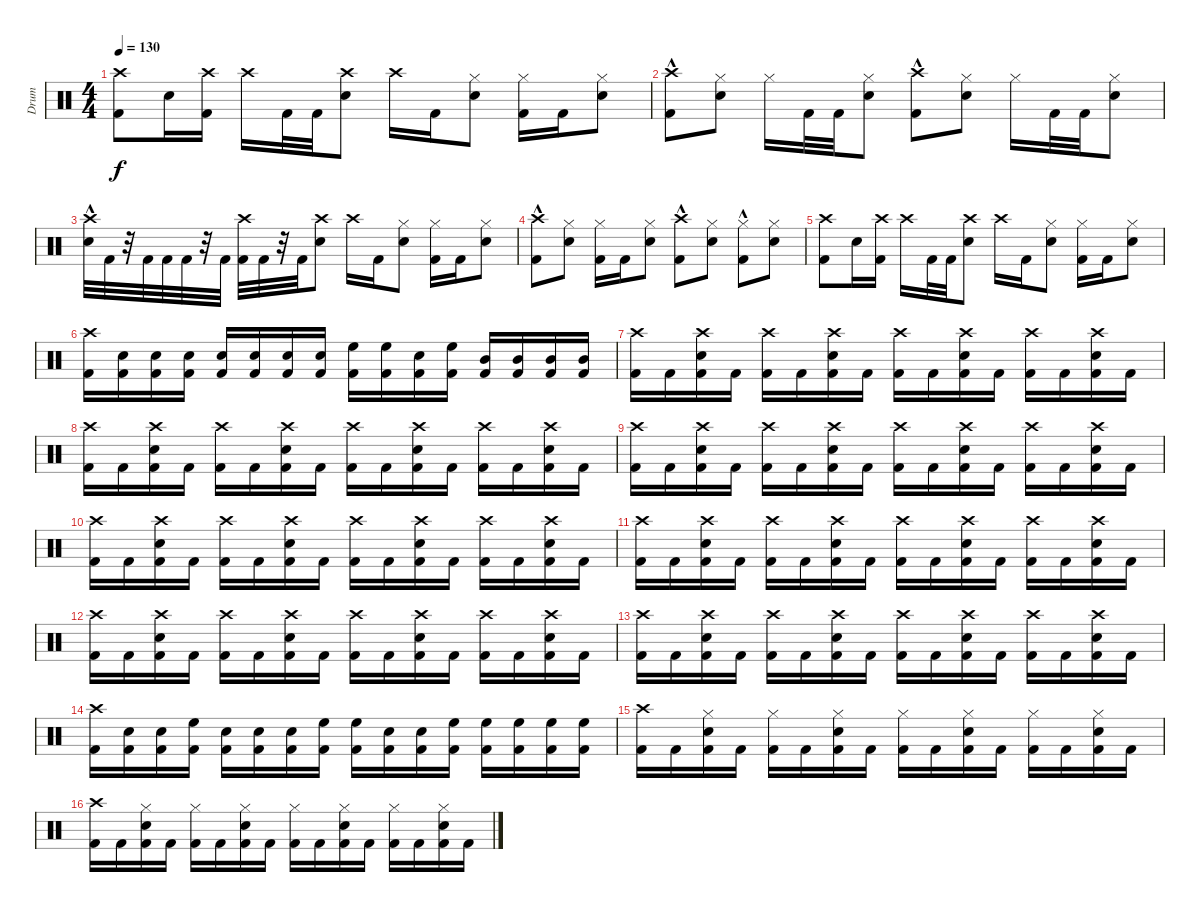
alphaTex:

\track ("Drum" "Drum") {instrument percussion}
\staff {score}
\articulation defaults
\ts (4 4)
\tempo 130
\clef neutral
\ks c
("Crash high (hit)" "Kick (hit) 2").8{dy f} "Snare (hit) 2".16 ("Crash high (hit)" "Kick (hit) 2").16 "Crash high (hit)".16 "Kick (hit) 2".32 "Kick (hit) 2".32 ("Crash high (hit)" "Snare (hit) 2").8 "Crash high (hit)".16 "Kick (hit) 2".16 ("Hi-Hat (closed)" "Snare (hit) 2").8 ("Hi-Hat (closed)" "Kick (hit) 2").16 "Kick (hit) 2".16 ("Hi-Hat (closed)" "Snare (hit) 2").8 |
("Crash high (hit)" "Kick (hit) 2"{hac}).8 ("Hi-Hat (closed)" "Snare (hit) 2").8 "Hi-Hat (closed)".16 "Kick (hit) 2".32 "Kick (hit) 2".32 ("Hi-Hat (closed)" "Snare (hit) 2").8 ("Crash high (hit)" "Kick (hit) 2"{hac}).8 ("Hi-Hat (closed)" "Snare (hit) 2").8 "Hi-Hat (closed)".16 "Kick (hit) 2".32 "Kick (hit) 2".32 ("Hi-Hat (closed)" "Snare (hit) 2").8 |
("Crash high (hit)"{hac} "Snare (hit) 2"{hac}).32 "Kick (hit) 2".32 r.32 "Kick (hit) 2".32 "Kick (hit) 2".32 "Kick (hit) 2".32 r.32 "Kick (hit) 2".32 ("Crash high (hit)" "Kick (hit) 2").32 "Kick (hit) 2".32 r.32 "Kick (hit) 2".32 ("Crash high (hit)" "Snare (hit) 2").8 "Crash high (hit)".16 "Kick (hit) 2".16 ("Hi-Hat (closed)" "Snare (hit) 2").8 ("Hi-Hat (closed)" "Kick (hit) 2").16 "Kick (hit) 2".16 ("Hi-Hat (closed)" "Snare (hit) 2").8 |
("Crash high (hit)" "Kick (hit) 2"{hac}).8 ("Hi-Hat (closed)" "Snare (hit) 2").8 ("Hi-Hat (closed)" "Kick (hit) 2").16 "Kick (hit) 2".16 ("Hi-Hat (closed)" "Snare (hit) 2").8 ("Crash high (hit)" "Kick (hit) 2"{hac}).8 ("Hi-Hat (closed)" "Snare (hit) 2").8 ("Hi-Hat (closed)" "Kick (hit) 2"{hac}).8 ("Hi-Hat (closed)" "Snare (hit) 2").8 |
("Crash high (hit)" "Kick (hit) 2").8 "Snare (hit) 2".16 ("Crash high (hit)" "Kick (hit) 2").16 "Crash high (hit)".16 "Kick (hit) 2".32 "Kick (hit) 2".32 ("Crash high (hit)" "Snare (hit) 2").8 "Crash high (hit)".16 "Kick (hit) 2".16 ("Hi-Hat (closed)" "Snare (hit) 2").8 ("Hi-Hat (closed)" "Kick (hit) 2").16 "Kick (hit) 2".16 ("Hi-Hat (closed)" "Snare (hit) 2").8 |
("Crash high (hit)" "Kick (hit) 2").16 ("Snare (hit) 2" "Kick (hit) 2").16 ("Snare (hit) 2" "Kick (hit) 2").16 ("Snare (hit) 2" "Kick (hit) 2").16 ("Snare (hit) 2" "Kick (hit) 2").16 ("Snare (hit) 2" "Kick (hit) 2").16 ("Snare (hit) 2" "Kick (hit) 2").16 ("Snare (hit) 2" "Kick (hit) 2").16 ("High Floor Tom (hit)" "Kick (hit) 2").16 ("High Floor Tom (hit)" "Kick (hit) 2").16 ("Snare (hit) 2" "Kick (hit) 2").16 ("High Floor Tom (hit)" "Kick (hit) 2").16 ("Mid Tom (hit)" "Kick (hit) 2").16 ("Mid Tom (hit)" "Kick (hit) 2").16 ("Mid Tom (hit)" "Kick (hit) 2").16 ("Mid Tom (hit)" "Kick (hit) 2").16 |
("Kick (hit) 2" "Crash high (hit)").16 "Kick (hit) 2".16 ("Kick (hit) 2" "Crash high (hit)" "Snare (hit) 2").16 "Kick (hit) 2".16 ("Kick (hit) 2" "Crash high (hit)").16 "Kick (hit) 2".16 ("Kick (hit) 2" "Crash high (hit)" "Snare (hit) 2").16 "Kick (hit) 2".16 ("Kick (hit) 2" "Crash high (hit)").16 "Kick (hit) 2".16 ("Kick (hit) 2" "Crash high (hit)" "Snare (hit) 2").16 "Kick (hit) 2".16 ("Kick (hit) 2" "Crash high (hit)").16 "Kick (hit) 2".16 ("Kick (hit) 2" "Crash high (hit)" "Snare (hit) 2").16 "Kick (hit) 2".16 |
("Kick (hit) 2" "Crash high (hit)").16 "Kick (hit) 2".16 ("Kick (hit) 2" "Crash high (hit)" "Snare (hit) 2").16 "Kick (hit) 2".16 ("Kick (hit) 2" "Crash high (hit)").16 "Kick (hit) 2".16 ("Kick (hit) 2" "Crash high (hit)" "Snare (hit) 2").16 "Kick (hit) 2".16 ("Kick (hit) 2" "Crash high (hit)").16 "Kick (hit) 2".16 ("Kick (hit) 2" "Crash high (hit)" "Snare (hit) 2").16 "Kick (hit) 2".16 ("Kick (hit) 2" "Crash high (hit)").16 "Kick (hit) 2".16 ("Kick (hit) 2" "Crash high (hit)" "Snare (hit) 2").16 "Kick (hit) 2".16 |
("Kick (hit) 2" "Crash high (hit)").16 "Kick (hit) 2".16 ("Kick (hit) 2" "Crash high (hit)" "Snare (hit) 2").16 "Kick (hit) 2".16 ("Kick (hit) 2" "Crash high (hit)").16 "Kick (hit) 2".16 ("Kick (hit) 2" "Crash high (hit)" "Snare (hit) 2").16 "Kick (hit) 2".16 ("Kick (hit) 2" "Crash high (hit)").16 "Kick (hit) 2".16 ("Kick (hit) 2" "Crash high (hit)" "Snare (hit) 2").16 "Kick (hit) 2".16 ("Kick (hit) 2" "Crash high (hit)").16 "Kick (hit) 2".16 ("Kick (hit) 2" "Crash high (hit)" "Snare (hit) 2").16 "Kick (hit) 2".16 |
("Kick (hit) 2" "Crash high (hit)").16 "Kick (hit) 2".16 ("Kick (hit) 2" "Crash high (hit)" "Snare (hit) 2").16 "Kick (hit) 2".16 ("Kick (hit) 2" "Crash high (hit)").16 "Kick (hit) 2".16 ("Kick (hit) 2" "Crash high (hit)" "Snare (hit) 2").16 "Kick (hit) 2".16 ("Kick (hit) 2" "Crash high (hit)").16 "Kick (hit) 2".16 ("Kick (hit) 2" "Crash high (hit)" "Snare (hit) 2").16 "Kick (hit) 2".16 ("Kick (hit) 2" "Crash high (hit)").16 "Kick (hit) 2".16 ("Kick (hit) 2" "Crash high (hit)" "Snare (hit) 2").16 "Kick (hit) 2".16 |
("Kick (hit) 2" "Crash high (hit)").16 "Kick (hit) 2".16 ("Kick (hit) 2" "Crash high (hit)" "Snare (hit) 2").16 "Kick (hit) 2".16 ("Kick (hit) 2" "Crash high (hit)").16 "Kick (hit) 2".16 ("Kick (hit) 2" "Crash high (hit)" "Snare (hit) 2").16 "Kick (hit) 2".16 ("Kick (hit) 2" "Crash high (hit)").16 "Kick (hit) 2".16 ("Kick (hit) 2" "Crash high (hit)" "Snare (hit) 2").16 "Kick (hit) 2".16 ("Kick (hit) 2" "Crash high (hit)").16 "Kick (hit) 2".16 ("Kick (hit) 2" "Crash high (hit)" "Snare (hit) 2").16 "Kick (hit) 2".16 |
("Kick (hit) 2" "Crash high (hit)").16 "Kick (hit) 2".16 ("Kick (hit) 2" "Crash high (hit)" "Snare (hit) 2").16 "Kick (hit) 2".16 ("Kick (hit) 2" "Crash high (hit)").16 "Kick (hit) 2".16 ("Kick (hit) 2" "Crash high (hit)" "Snare (hit) 2").16 "Kick (hit) 2".16 ("Kick (hit) 2" "Crash high (hit)").16 "Kick (hit) 2".16 ("Kick (hit) 2" "Crash high (hit)" "Snare (hit) 2").16 "Kick (hit) 2".16 ("Kick (hit) 2" "Crash high (hit)").16 "Kick (hit) 2".16 ("Kick (hit) 2" "Crash high (hit)" "Snare (hit) 2").16 "Kick (hit) 2".16 |
("Kick (hit) 2" "Crash high (hit)").16 "Kick (hit) 2".16 ("Kick (hit) 2" "Crash high (hit)" "Snare (hit) 2").16 "Kick (hit) 2".16 ("Kick (hit) 2" "Crash high (hit)").16 "Kick (hit) 2".16 ("Kick (hit) 2" "Crash high (hit)" "Snare (hit) 2").16 "Kick (hit) 2".16 ("Kick (hit) 2" "Crash high (hit)").16 "Kick (hit) 2".16 ("Kick (hit) 2" "Crash high (hit)" "Snare (hit) 2").16 "Kick (hit) 2".16 ("Kick (hit) 2" "Crash high (hit)").16 "Kick (hit) 2".16 ("Kick (hit) 2" "Crash high (hit)" "Snare (hit) 2").16 "Kick (hit) 2".16 |
("Crash high (hit)" "Kick (hit) 2").16 ("Snare (hit) 2" "Kick (hit) 2").16 ("Snare (hit) 2" "Kick (hit) 2").16 ("Kick (hit) 2" "High Floor Tom (hit)").16 ("Kick (hit) 2" "Snare (hit) 2").16 ("Kick (hit) 2" "Snare (hit) 2").16 ("Kick (hit) 2" "Snare (hit) 2").16 ("Kick (hit) 2" "High Floor Tom (hit)").16 ("Kick (hit) 2" "High Floor Tom (hit)").16 ("Kick (hit) 2" "Snare (hit) 2").16 ("Kick (hit) 2" "Snare (hit) 2").16 ("Kick (hit) 2" "High Floor Tom (hit)").16 ("Kick (hit) 2" "High Floor Tom (hit)").16 ("Kick (hit) 2" "High Floor Tom (hit)").16 ("Kick (hit) 2" "High Floor Tom (hit)").16 ("Kick (hit) 2" "High Floor Tom (hit)").16 |
("Kick (hit) 2" "Crash high (hit)").16 "Kick (hit) 2".16 ("Kick (hit) 2" "Hi-Hat (closed)" "Snare (hit) 2").16 "Kick (hit) 2".16 ("Kick (hit) 2" "Hi-Hat (closed)").16 "Kick (hit) 2".16 ("Kick (hit) 2" "Hi-Hat (closed)" "Snare (hit) 2").16 "Kick (hit) 2".16 ("Kick (hit) 2" "Hi-Hat (closed)").16 "Kick (hit) 2".16 ("Kick (hit) 2" "Hi-Hat (closed)" "Snare (hit) 2").16 "Kick (hit) 2".16 ("Kick (hit) 2" "Hi-Hat (closed)").16 "Kick (hit) 2".16 ("Kick (hit) 2" "Hi-Hat (closed)" "Snare (hit) 2").16 "Kick (hit) 2".16 |
("Kick (hit) 2" "Crash high (hit)").16 "Kick (hit) 2".16 ("Kick (hit) 2" "Hi-Hat (closed)" "Snare (hit) 2").16 "Kick (hit) 2".16 ("Kick (hit) 2" "Hi-Hat (closed)").16 "Kick (hit) 2".16 ("Kick (hit) 2" "Hi-Hat (closed)" "Snare (hit) 2").16 "Kick (hit) 2".16 ("Kick (hit) 2" "Hi-Hat (closed)").16 "Kick (hit) 2".16 ("Kick (hit) 2" "Hi-Hat (closed)" "Snare (hit) 2").16 "Kick (hit) 2".16 ("Kick (hit) 2" "Hi-Hat (closed)").16 "Kick (hit) 2".16 ("Kick (hit) 2" "Hi-Hat (closed)" "Snare (hit) 2").16 "Kick (hit) 2".16
